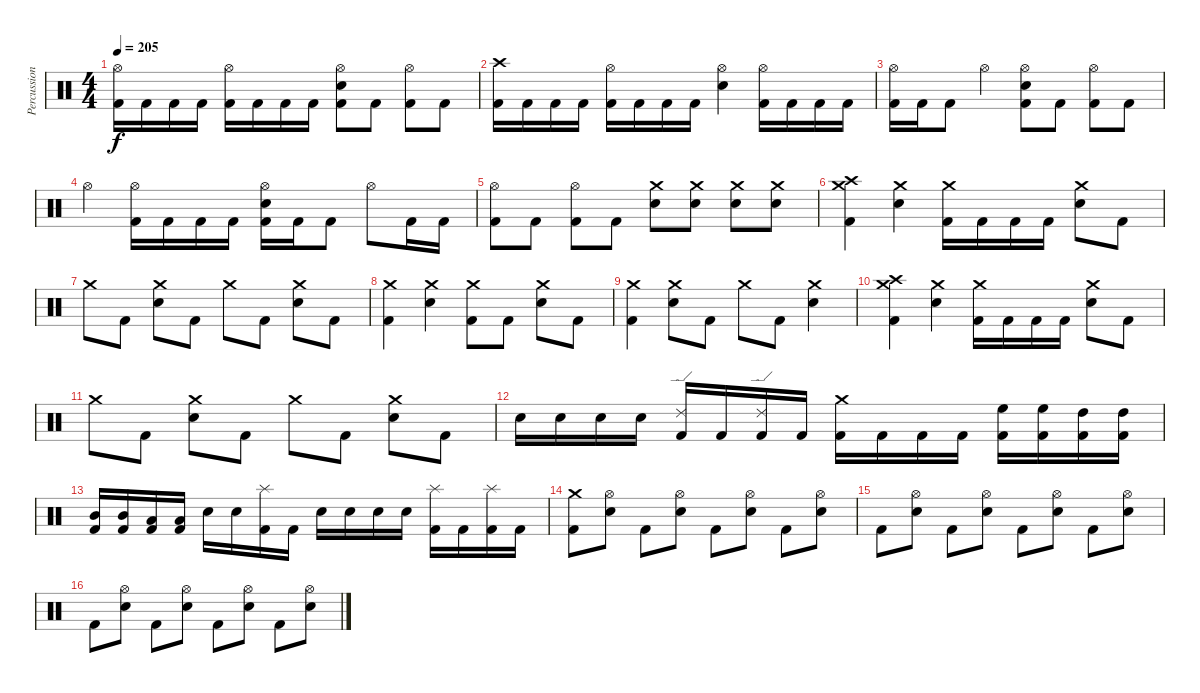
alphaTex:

\track ("Percussions" "Percussion") {instrument percussion}
\staff {score}
\articulation defaults
\ts (4 4)
\tempo 205
\clef neutral
\ks c
("Hi-Hat (open)" "Kick (hit) 2").16{dy f} "Kick (hit) 2".16 "Kick (hit) 2".16 "Kick (hit) 2".16 ("Hi-Hat (open)" "Kick (hit) 2").16 "Kick (hit) 2".16 "Kick (hit) 2".16 "Kick (hit) 2".16 ("Hi-Hat (open)" "Electric Snare (hit)" "Kick (hit) 2").8 "Kick (hit) 2".8 ("Hi-Hat (open)" "Kick (hit) 2").8 "Kick (hit) 2".8 |
("Crash high (hit)" "Kick (hit) 2").16 "Kick (hit) 2".16 "Kick (hit) 2".16 "Kick (hit) 2".16 ("Hi-Hat (open)" "Kick (hit) 2").16 "Kick (hit) 2".16 "Kick (hit) 2".16 "Kick (hit) 2".16 ("Hi-Hat (open)" "Electric Snare (hit)").4 ("Hi-Hat (open)" "Kick (hit) 2").16 "Kick (hit) 2".16 "Kick (hit) 2".16 "Kick (hit) 2".16 |
("Hi-Hat (open)" "Kick (hit) 2").16 "Kick (hit) 2".16 "Kick (hit) 2".8 "Hi-Hat (open)".4 ("Hi-Hat (open)" "Electric Snare (hit)" "Kick (hit) 2").8 "Kick (hit) 2".8 ("Hi-Hat (open)" "Kick (hit) 2").8 "Kick (hit) 2".8 |
"Hi-Hat (open)".4 ("Hi-Hat (open)" "Kick (hit) 2").16 "Kick (hit) 2".16 "Kick (hit) 2".16 "Kick (hit) 2".16 ("Hi-Hat (open)" "Electric Snare (hit)" "Kick (hit) 2").16 "Kick (hit) 2".16 "Kick (hit) 2".8 "Hi-Hat (open)".8 "Kick (hit) 2".16 "Kick (hit) 2".16 |
("Hi-Hat (open)" "Kick (hit) 2").8 "Kick (hit) 2".8 ("Hi-Hat (open)" "Kick (hit) 2").8 "Kick (hit) 2".8 ("Crash medium (hit)" "Electric Snare (hit)").8 ("Crash medium (hit)" "Electric Snare (hit)").8 ("Crash medium (hit)" "Electric Snare (hit)").8 ("Crash medium (hit)" "Electric Snare (hit)").8 |
("Crash medium (hit)" "Crash high (hit)" "Kick (hit) 2").4 ("Crash medium (hit)" "Electric Snare (hit)").4 ("Crash medium (hit)" "Kick (hit) 2").16 "Kick (hit) 2".16 "Kick (hit) 2".16 "Kick (hit) 2".16 ("Crash medium (hit)" "Electric Snare (hit)").8 "Kick (hit) 2".8 |
"Crash medium (hit)".8 "Kick (hit) 2".8 ("Crash medium (hit)" "Electric Snare (hit)").8 "Kick (hit) 2".8 "Crash medium (hit)".8 "Kick (hit) 2".8 ("Crash medium (hit)" "Electric Snare (hit)").8 "Kick (hit) 2".8 |
("Crash medium (hit)" "Kick (hit) 2").4 ("Crash medium (hit)" "Electric Snare (hit)").4 ("Crash medium (hit)" "Kick (hit) 2").8 "Kick (hit) 2".8 ("Crash medium (hit)" "Electric Snare (hit)").8 "Kick (hit) 2".8 |
("Crash medium (hit)" "Kick (hit) 2").4 ("Crash medium (hit)" "Electric Snare (hit)").8 "Kick (hit) 2".8 "Crash medium (hit)".8 "Kick (hit) 2".8 ("Crash medium (hit)" "Electric Snare (hit)").4 |
("Crash medium (hit)" "Crash high (hit)" "Kick (hit) 2").4 ("Crash medium (hit)" "Electric Snare (hit)").4 ("Crash medium (hit)" "Kick (hit) 2").16 "Kick (hit) 2".16 "Kick (hit) 2".16 "Kick (hit) 2".16 ("Crash medium (hit)" "Electric Snare (hit)").8 "Kick (hit) 2".8 |
"Crash medium (hit)".8 "Kick (hit) 2".8 ("Crash medium (hit)" "Electric Snare (hit)").8 "Kick (hit) 2".8 "Crash medium (hit)".8 "Kick (hit) 2".8 ("Crash medium (hit)" "Electric Snare (hit)").8 "Kick (hit) 2".8 |
"Electric Snare (hit)".16 "Electric Snare (hit)".16 "Electric Snare (hit)".16 "Electric Snare (hit)".16 ("Ride (edge) 2" "Kick (hit) 2").16 "Kick (hit) 2".16 ("Ride (edge) 2" "Kick (hit) 2").16 "Kick (hit) 2".16 ("Crash medium (hit)" "Kick (hit) 2").16 "Kick (hit) 2".16 "Kick (hit) 2".16 "Kick (hit) 2".16 ("High Floor Tom (hit)" "Kick (hit) 2").16 ("High Floor Tom (hit)" "Kick (hit) 2").16 ("High Tom (hit)" "Kick (hit) 2").16 ("High Tom (hit)" "Kick (hit) 2").16 |
("Mid Tom (hit)" "Kick (hit) 2").16 ("Mid Tom (hit)" "Kick (hit) 2").16 ("Low Tom (hit)" "Kick (hit) 2").16 ("Low Tom (hit)" "Kick (hit) 2").16 "Electric Snare (hit)".16 "Electric Snare (hit)".16 ("Splash (hit)" "Kick (hit) 2").16 "Kick (hit) 2".16 "Electric Snare (hit)".16 "Electric Snare (hit)".16 "Electric Snare (hit)".16 "Electric Snare (hit)".16 ("Splash (hit)" "Kick (hit) 2").16 "Kick (hit) 2".16 ("Splash (hit)" "Kick (hit) 2").16 "Kick (hit) 2".16 |
("Crash medium (hit)" "Kick (hit) 2").8 ("Hi-Hat (open)" "Electric Snare (hit)").8 "Kick (hit) 2".8 ("Hi-Hat (open)" "Electric Snare (hit)").8 "Kick (hit) 2".8 ("Hi-Hat (open)" "Electric Snare (hit)").8 "Kick (hit) 2".8 ("Hi-Hat (open)" "Electric Snare (hit)").8 |
"Kick (hit) 2".8 ("Hi-Hat (open)" "Electric Snare (hit)").8 "Kick (hit) 2".8 ("Hi-Hat (open)" "Electric Snare (hit)").8 "Kick (hit) 2".8 ("Hi-Hat (open)" "Electric Snare (hit)").8 "Kick (hit) 2".8 ("Hi-Hat (open)" "Electric Snare (hit)").8 |
"Kick (hit) 2".8 ("Hi-Hat (open)" "Electric Snare (hit)").8 "Kick (hit) 2".8 ("Hi-Hat (open)" "Electric Snare (hit)").8 "Kick (hit) 2".8 ("Hi-Hat (open)" "Electric Snare (hit)").8 "Kick (hit) 2".8 ("Hi-Hat (open)" "Electric Snare (hit)").8
